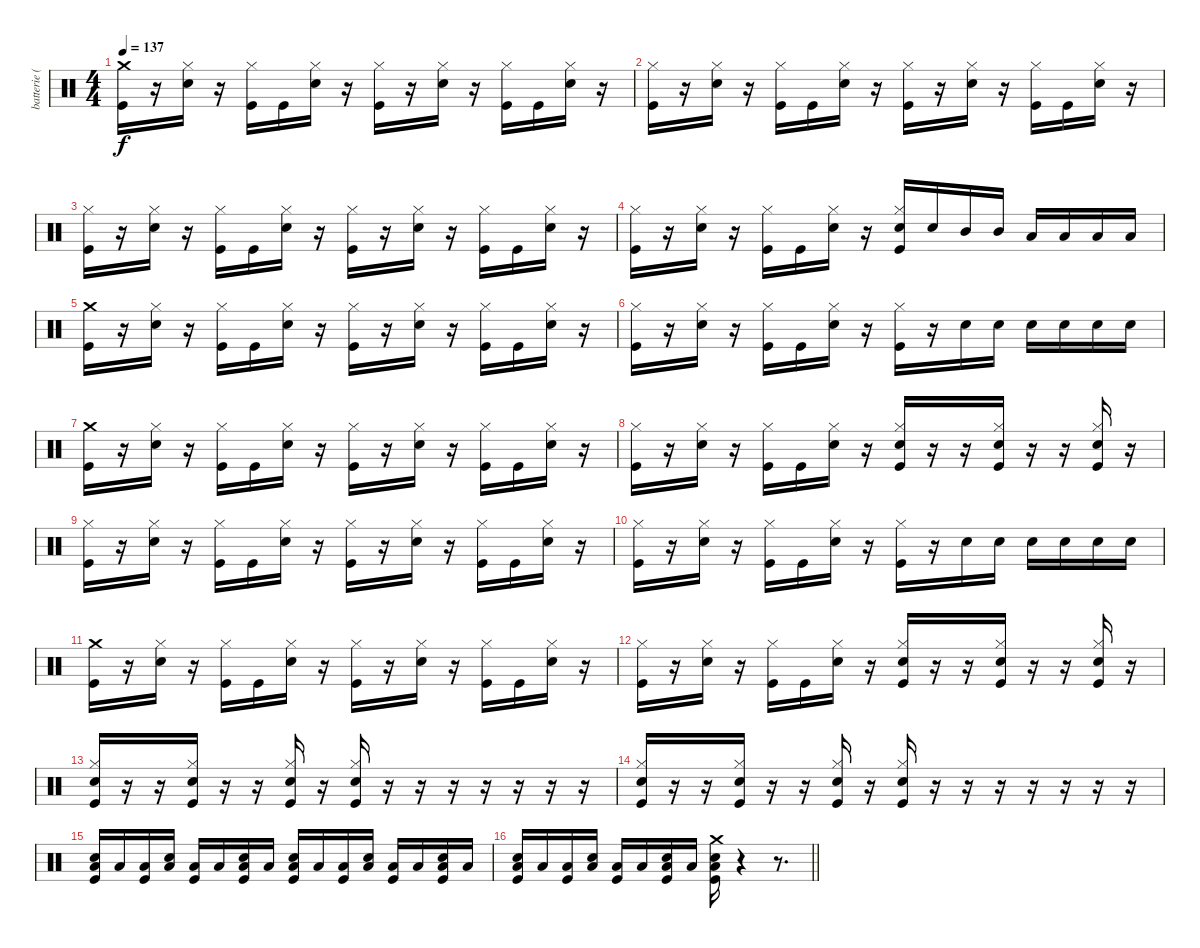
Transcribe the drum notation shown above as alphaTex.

\track ("batterie ( Reed ) " "batterie (") {instrument percussion}
\staff {score}
\articulation defaults
\ts (4 4)
\tempo 137
\clef neutral
\ks c
("Crash medium (hit)" "Kick (hit)").16{dy f} r.16 ("Hi-Hat (closed)" "Snare (hit) 2").16 r.16 ("Hi-Hat (closed)" "Kick (hit)").16 "Kick (hit)".16 ("Hi-Hat (closed)" "Snare (hit) 2").16 r.16 ("Hi-Hat (closed)" "Kick (hit)").16 r.16 ("Hi-Hat (closed)" "Snare (hit) 2").16 r.16 ("Hi-Hat (closed)" "Kick (hit)").16 "Kick (hit)".16 ("Hi-Hat (closed)" "Snare (hit) 2").16 r.16 |
("Hi-Hat (closed)" "Kick (hit)").16 r.16 ("Hi-Hat (closed)" "Snare (hit) 2").16 r.16 ("Hi-Hat (closed)" "Kick (hit)").16 "Kick (hit)".16 ("Hi-Hat (closed)" "Snare (hit) 2").16 r.16 ("Hi-Hat (closed)" "Kick (hit)").16 r.16 ("Hi-Hat (closed)" "Snare (hit) 2").16 r.16 ("Hi-Hat (closed)" "Kick (hit)").16 "Kick (hit)".16 ("Hi-Hat (closed)" "Snare (hit) 2").16 r.16 |
("Hi-Hat (closed)" "Kick (hit)").16 r.16 ("Hi-Hat (closed)" "Snare (hit) 2").16 r.16 ("Hi-Hat (closed)" "Kick (hit)").16 "Kick (hit)".16 ("Hi-Hat (closed)" "Snare (hit) 2").16 r.16 ("Hi-Hat (closed)" "Kick (hit)").16 r.16 ("Hi-Hat (closed)" "Snare (hit) 2").16 r.16 ("Hi-Hat (closed)" "Kick (hit)").16 "Kick (hit)".16 ("Hi-Hat (closed)" "Snare (hit) 2").16 r.16 |
("Hi-Hat (closed)" "Kick (hit)").16 r.16 ("Hi-Hat (closed)" "Snare (hit) 2").16 r.16 ("Hi-Hat (closed)" "Kick (hit)").16 "Kick (hit)".16 ("Hi-Hat (closed)" "Snare (hit) 2").16 r.16 ("Hi-Hat (closed)" "Snare (hit) 2" "Kick (hit)").16 "Snare (hit) 2".16 "Mid Tom (hit)".16 "Mid Tom (hit)".16 "Low Tom (hit)".16 "Low Tom (hit)".16 "Low Floor Tom (hit)".16 "Low Floor Tom (hit)".16 |
("Crash medium (hit)" "Kick (hit)").16 r.16 ("Hi-Hat (closed)" "Snare (hit) 2").16 r.16 ("Hi-Hat (closed)" "Kick (hit)").16 "Kick (hit)".16 ("Hi-Hat (closed)" "Snare (hit) 2").16 r.16 ("Hi-Hat (closed)" "Kick (hit)").16 r.16 ("Hi-Hat (closed)" "Snare (hit) 2").16 r.16 ("Hi-Hat (closed)" "Kick (hit)").16 "Kick (hit)".16 ("Hi-Hat (closed)" "Snare (hit) 2").16 r.16 |
("Hi-Hat (closed)" "Kick (hit)").16 r.16 ("Hi-Hat (closed)" "Snare (hit) 2").16 r.16 ("Hi-Hat (closed)" "Kick (hit)").16 "Kick (hit)".16 ("Hi-Hat (closed)" "Snare (hit) 2").16 r.16 ("Hi-Hat (closed)" "Kick (hit)").16 r.16 "Snare (hit) 2".16 "Snare (hit) 2".16 "Snare (hit) 2".16 "Snare (hit) 2".16 "Snare (hit) 2".16 "Snare (hit) 2".16 |
("Crash medium (hit)" "Kick (hit)").16 r.16 ("Hi-Hat (closed)" "Snare (hit) 2").16 r.16 ("Hi-Hat (closed)" "Kick (hit)").16 "Kick (hit)".16 ("Hi-Hat (closed)" "Snare (hit) 2").16 r.16 ("Hi-Hat (closed)" "Kick (hit)").16 r.16 ("Hi-Hat (closed)" "Snare (hit) 2").16 r.16 ("Hi-Hat (closed)" "Kick (hit)").16 "Kick (hit)".16 ("Hi-Hat (closed)" "Snare (hit) 2").16 r.16 |
("Hi-Hat (closed)" "Kick (hit)").16 r.16 ("Hi-Hat (closed)" "Snare (hit) 2").16 r.16 ("Hi-Hat (closed)" "Kick (hit)").16 "Kick (hit)".16 ("Hi-Hat (closed)" "Snare (hit) 2").16 r.16 ("Hi-Hat (closed)" "Snare (hit) 2" "Kick (hit)").16 r.16 r.16 ("Hi-Hat (closed)" "Snare (hit) 2" "Kick (hit)").16 r.16 r.16 ("Hi-Hat (closed)" "Snare (hit) 2" "Kick (hit)").16 r.16 |
("Hi-Hat (closed)" "Kick (hit)").16 r.16 ("Hi-Hat (closed)" "Snare (hit) 2").16 r.16 ("Hi-Hat (closed)" "Kick (hit)").16 "Kick (hit)".16 ("Hi-Hat (closed)" "Snare (hit) 2").16 r.16 ("Hi-Hat (closed)" "Kick (hit)").16 r.16 ("Hi-Hat (closed)" "Snare (hit) 2").16 r.16 ("Hi-Hat (closed)" "Kick (hit)").16 "Kick (hit)".16 ("Hi-Hat (closed)" "Snare (hit) 2").16 r.16 |
("Hi-Hat (closed)" "Kick (hit)").16 r.16 ("Hi-Hat (closed)" "Snare (hit) 2").16 r.16 ("Hi-Hat (closed)" "Kick (hit)").16 "Kick (hit)".16 ("Hi-Hat (closed)" "Snare (hit) 2").16 r.16 ("Hi-Hat (closed)" "Kick (hit)").16 r.16 "Snare (hit) 2".16 "Snare (hit) 2".16 "Snare (hit) 2".16 "Snare (hit) 2".16 "Snare (hit) 2".16 "Snare (hit) 2".16 |
("Crash medium (hit)" "Kick (hit)").16 r.16 ("Hi-Hat (closed)" "Snare (hit) 2").16 r.16 ("Hi-Hat (closed)" "Kick (hit)").16 "Kick (hit)".16 ("Hi-Hat (closed)" "Snare (hit) 2").16 r.16 ("Hi-Hat (closed)" "Kick (hit)").16 r.16 ("Hi-Hat (closed)" "Snare (hit) 2").16 r.16 ("Hi-Hat (closed)" "Kick (hit)").16 "Kick (hit)".16 ("Hi-Hat (closed)" "Snare (hit) 2").16 r.16 |
("Hi-Hat (closed)" "Kick (hit)").16 r.16 ("Hi-Hat (closed)" "Snare (hit) 2").16 r.16 ("Hi-Hat (closed)" "Kick (hit)").16 "Kick (hit)".16 ("Hi-Hat (closed)" "Snare (hit) 2").16 r.16 ("Hi-Hat (closed)" "Snare (hit) 2" "Kick (hit)").16 r.16 r.16 ("Hi-Hat (closed)" "Snare (hit) 2" "Kick (hit)").16 r.16 r.16 ("Hi-Hat (closed)" "Snare (hit) 2" "Kick (hit)").16 r.16 |
("Hi-Hat (closed)" "Snare (hit) 2" "Kick (hit)").16 r.16 r.16 ("Hi-Hat (closed)" "Snare (hit) 2" "Kick (hit)").16 r.16 r.16 ("Hi-Hat (closed)" "Snare (hit) 2" "Kick (hit)").16 r.16 ("Hi-Hat (closed)" "Snare (hit) 2" "Kick (hit)").16 r.16 r.16 r.16 r.16 r.16 r.16 r.16 |
("Hi-Hat (closed)" "Snare (hit) 2" "Kick (hit)").16 r.16 r.16 ("Hi-Hat (closed)" "Snare (hit) 2" "Kick (hit)").16 r.16 r.16 ("Hi-Hat (closed)" "Snare (hit) 2" "Kick (hit)").16 r.16 ("Hi-Hat (closed)" "Snare (hit) 2" "Kick (hit)").16 r.16 r.16 r.16 r.16 r.16 r.16 r.16 |
("Low Floor Tom (hit)" "Snare (hit) 2" "Kick (hit)").16 "Low Floor Tom (hit)".16 ("Low Floor Tom (hit)" "Kick (hit)").16 ("Low Floor Tom (hit)" "Snare (hit) 2").16 ("Low Floor Tom (hit)" "Kick (hit)").16 "Low Floor Tom (hit)".16 ("Low Floor Tom (hit)" "Snare (hit) 2" "Kick (hit)").16 "Low Floor Tom (hit)".16 ("Low Floor Tom (hit)" "Snare (hit) 2" "Kick (hit)").16 "Low Floor Tom (hit)".16 ("Low Floor Tom (hit)" "Kick (hit)").16 ("Low Floor Tom (hit)" "Snare (hit) 2").16 ("Low Floor Tom (hit)" "Kick (hit)").16 "Low Floor Tom (hit)".16 ("Low Floor Tom (hit)" "Snare (hit) 2" "Kick (hit)").16 "Low Floor Tom (hit)".16 |
\barLineRight lightlight
("Low Floor Tom (hit)" "Snare (hit) 2" "Kick (hit)").16 "Low Floor Tom (hit)".16 ("Low Floor Tom (hit)" "Kick (hit)").16 ("Low Floor Tom (hit)" "Snare (hit) 2").16 ("Low Floor Tom (hit)" "Kick (hit)").16 "Low Floor Tom (hit)".16 ("Low Floor Tom (hit)" "Snare (hit) 2" "Kick (hit)").16 "Low Floor Tom (hit)".16 ("Crash medium (hit)" "Low Floor Tom (hit)" "Snare (hit) 2" "Kick (hit)").16 r.4 r.8{d}
